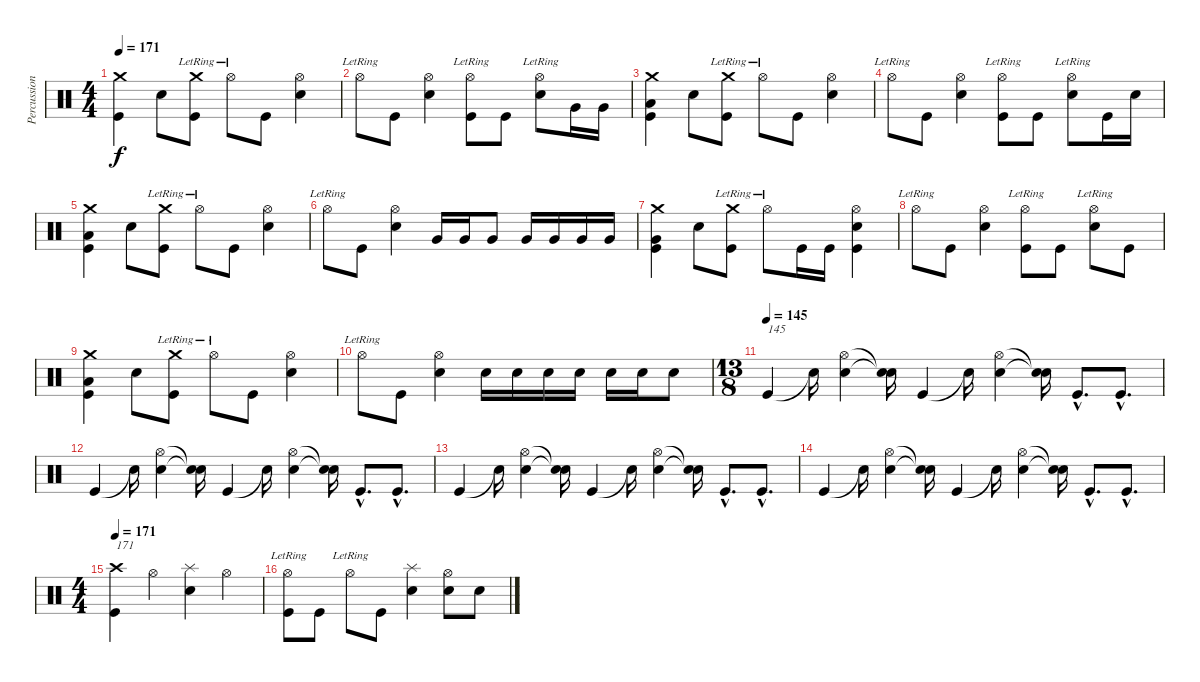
\track ("Percussions" "Percussion") {instrument percussion}
\staff {score}
\articulation defaults
\ts (4 4)
\tempo 171
\clef neutral
\ks c
("Crash medium (hit)" "Kick (hit)").4{dy f} "Snare (hit) 2".8 ("Crash medium (hit)"{lr} "Kick (hit)").8 "Hi-Hat (open)"{lr}.8 "Kick (hit)".8 ("Hi-Hat (open)" "Snare (hit) 2").4 |
"Hi-Hat (open)"{lr}.8 "Kick (hit)".8 ("Hi-Hat (open)" "Snare (hit) 2").4 ("Hi-Hat (open)"{lr} "Kick (hit)").8 "Kick (hit)".8 ("Hi-Hat (open)"{lr} "Snare (hit) 2").8 "Very Low Tom (hit)".16 "Very Low Tom (hit)".16 |
("Crash medium (hit)" "Low Floor Tom (hit)" "Kick (hit)").4 "Snare (hit) 2".8 ("Crash medium (hit)"{lr} "Kick (hit)").8 "Hi-Hat (open)"{lr}.8 "Kick (hit)".8 ("Hi-Hat (open)" "Snare (hit) 2").4 |
"Hi-Hat (open)"{lr}.8 "Kick (hit)".8 ("Hi-Hat (open)" "Snare (hit) 2").4 ("Hi-Hat (open)"{lr} "Kick (hit)").8 "Kick (hit)".8 ("Hi-Hat (open)"{lr} "Snare (hit) 2").8 "Kick (hit)".16 "Snare (hit) 2".16 |
("Crash medium (hit)" "Low Floor Tom (hit)" "Kick (hit)").4 "Snare (hit) 2".8 ("Crash medium (hit)"{lr} "Kick (hit)").8 "Hi-Hat (open)"{lr}.8 "Kick (hit)".8 ("Hi-Hat (open)" "Snare (hit) 2").4 |
"Hi-Hat (open)"{lr}.8 "Kick (hit)".8 ("Hi-Hat (open)" "Snare (hit) 2").4 "Very Low Tom (hit)".16 "Very Low Tom (hit)".16 "Very Low Tom (hit)".8 "Very Low Tom (hit)".16 "Very Low Tom (hit)".16 "Very Low Tom (hit)".16 "Very Low Tom (hit)".16 |
("Crash medium (hit)" "Very Low Tom (hit)" "Kick (hit)").4 "Snare (hit) 2".8 ("Crash medium (hit)"{lr} "Kick (hit)").8 "Hi-Hat (open)"{lr}.8 "Kick (hit)".16 "Kick (hit)".16 ("Hi-Hat (open)" "Snare (hit) 2" "Kick (hit)").4 |
"Hi-Hat (open)"{lr}.8 "Kick (hit)".8 ("Hi-Hat (open)" "Snare (hit) 2").4 ("Hi-Hat (open)"{lr} "Kick (hit)").8 "Kick (hit)".8 ("Hi-Hat (open)"{lr} "Snare (hit) 2").8 "Kick (hit)".8 |
("Crash medium (hit)" "Low Floor Tom (hit)" "Kick (hit)").4 "Snare (hit) 2".8 ("Crash medium (hit)"{lr} "Kick (hit)").8 "Hi-Hat (open)"{lr}.8 "Kick (hit)".8 ("Hi-Hat (open)" "Snare (hit) 2").4 |
"Hi-Hat (open)"{lr}.8 "Kick (hit)".8 ("Hi-Hat (open)" "Snare (hit) 2").4 "Snare (hit) 2".16 "Snare (hit) 2".16 "Snare (hit) 2".16 "Snare (hit) 2".16 "Snare (hit) 2".16 "Snare (hit) 2".16 "Snare (hit) 2".8 |
\ts (13 8)
\tempo (145)
"Kick (hit)".4{txt "145"} "Snare (hit)"{t}.16 ("Hi-Hat (open)" "Snare (hit) 2").4 ("Snare (hit)"{t} "Snare (hit)"{t}).16 "Kick (hit)".4 "Snare (hit)"{t}.16 ("Hi-Hat (open)" "Snare (hit) 2").4 ("Snare (hit)"{t} "Snare (hit)"{t}).16 "Kick (hit)"{hac}.8{d} "Kick (hit)"{hac}.8{d} |
"Kick (hit)".4 "Snare (hit)"{t}.16 ("Hi-Hat (open)" "Snare (hit) 2").4 ("Snare (hit)"{t} "Snare (hit)"{t}).16 "Kick (hit)".4 "Snare (hit)"{t}.16 ("Hi-Hat (open)" "Snare (hit) 2").4 ("Snare (hit)"{t} "Snare (hit)"{t}).16 "Kick (hit)"{hac}.8{d} "Kick (hit)"{hac}.8{d} |
"Kick (hit)".4 "Snare (hit)"{t}.16 ("Hi-Hat (open)" "Snare (hit) 2").4 ("Snare (hit)"{t} "Snare (hit)"{t}).16 "Kick (hit)".4 "Snare (hit)"{t}.16 ("Hi-Hat (open)" "Snare (hit) 2").4 ("Snare (hit)"{t} "Snare (hit)"{t}).16 "Kick (hit)"{hac}.8{d} "Kick (hit)"{hac}.8{d} |
"Kick (hit)".4 "Snare (hit)"{t}.16 ("Hi-Hat (open)" "Snare (hit) 2").4 ("Snare (hit)"{t} "Snare (hit)"{t}).16 "Kick (hit)".4 "Snare (hit)"{t}.16 ("Hi-Hat (open)" "Snare (hit) 2").4 ("Snare (hit)"{t} "Snare (hit)"{t}).16 "Kick (hit)"{hac}.8{d} "Kick (hit)"{hac}.8{d} |
\ts (4 4)
\tempo 171
("Crash high (hit)" "Kick (hit)").4{txt "171"} "Hi-Hat (open)".4 ("Splash (hit)" "Snare (hit) 2").4 "Hi-Hat (open)".4 |
("Hi-Hat (open)"{lr} "Kick (hit)").8 "Kick (hit)".8 "Hi-Hat (open)"{lr}.8 "Kick (hit)".8 ("Splash (hit)" "Snare (hit) 2").4 ("Hi-Hat (open)" "Snare (hit) 2").8 "Snare (hit) 2".8
